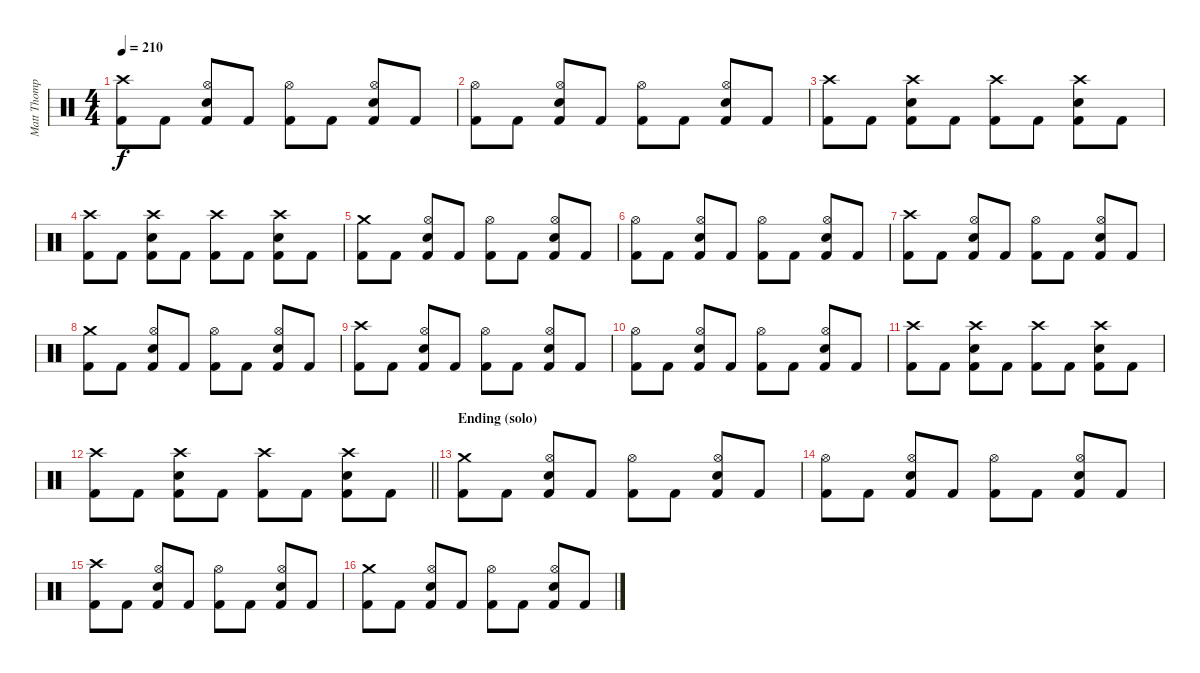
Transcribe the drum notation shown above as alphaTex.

\track ("Matt Thompson" "Matt Thomp") {instrument percussion}
\staff {score}
\articulation defaults
\ts (4 4)
\tempo 210
\clef neutral
\ks c
("Crash high (hit)" "Kick (hit) 2").8{dy f} "Kick (hit) 2".8 ("Hi-Hat (open)" "Electric Snare (hit)" "Kick (hit) 2").8 "Kick (hit) 2".8 ("Hi-Hat (open)" "Kick (hit) 2").8 "Kick (hit) 2".8 ("Hi-Hat (open)" "Electric Snare (hit)" "Kick (hit) 2").8 "Kick (hit) 2".8 |
("Hi-Hat (open)" "Kick (hit) 2").8 "Kick (hit) 2".8 ("Hi-Hat (open)" "Electric Snare (hit)" "Kick (hit) 2").8 "Kick (hit) 2".8 ("Hi-Hat (open)" "Kick (hit) 2").8 "Kick (hit) 2".8 ("Hi-Hat (open)" "Electric Snare (hit)" "Kick (hit) 2").8 "Kick (hit) 2".8 |
("Crash high (hit)" "Kick (hit) 2").8 "Kick (hit) 2".8 ("Crash high (hit)" "Electric Snare (hit)" "Kick (hit) 2").8 "Kick (hit) 2".8 ("Crash high (hit)" "Kick (hit) 2").8 "Kick (hit) 2".8 ("Crash high (hit)" "Electric Snare (hit)" "Kick (hit) 2").8 "Kick (hit) 2".8 |
("Crash high (hit)" "Kick (hit) 2").8 "Kick (hit) 2".8 ("Crash high (hit)" "Electric Snare (hit)" "Kick (hit) 2").8 "Kick (hit) 2".8 ("Crash high (hit)" "Kick (hit) 2").8 "Kick (hit) 2".8 ("Crash high (hit)" "Electric Snare (hit)" "Kick (hit) 2").8 "Kick (hit) 2".8 |
("Crash medium (hit)" "Kick (hit) 2").8 "Kick (hit) 2".8 ("Hi-Hat (open)" "Electric Snare (hit)" "Kick (hit) 2").8 "Kick (hit) 2".8 ("Hi-Hat (open)" "Kick (hit) 2").8 "Kick (hit) 2".8 ("Hi-Hat (open)" "Electric Snare (hit)" "Kick (hit) 2").8 "Kick (hit) 2".8 |
("Hi-Hat (open)" "Kick (hit) 2").8 "Kick (hit) 2".8 ("Hi-Hat (open)" "Electric Snare (hit)" "Kick (hit) 2").8 "Kick (hit) 2".8 ("Hi-Hat (open)" "Kick (hit) 2").8 "Kick (hit) 2".8 ("Hi-Hat (open)" "Electric Snare (hit)" "Kick (hit) 2").8 "Kick (hit) 2".8 |
("Crash high (hit)" "Kick (hit) 2").8 "Kick (hit) 2".8 ("Hi-Hat (open)" "Electric Snare (hit)" "Kick (hit) 2").8 "Kick (hit) 2".8 ("Hi-Hat (open)" "Kick (hit) 2").8 "Kick (hit) 2".8 ("Hi-Hat (open)" "Electric Snare (hit)" "Kick (hit) 2").8 "Kick (hit) 2".8 |
("Crash medium (hit)" "Kick (hit) 2").8 "Kick (hit) 2".8 ("Hi-Hat (open)" "Electric Snare (hit)" "Kick (hit) 2").8 "Kick (hit) 2".8 ("Hi-Hat (open)" "Kick (hit) 2").8 "Kick (hit) 2".8 ("Hi-Hat (open)" "Electric Snare (hit)" "Kick (hit) 2").8 "Kick (hit) 2".8 |
("Crash high (hit)" "Kick (hit) 2").8 "Kick (hit) 2".8 ("Hi-Hat (open)" "Electric Snare (hit)" "Kick (hit) 2").8 "Kick (hit) 2".8 ("Hi-Hat (open)" "Kick (hit) 2").8 "Kick (hit) 2".8 ("Hi-Hat (open)" "Electric Snare (hit)" "Kick (hit) 2").8 "Kick (hit) 2".8 |
("Hi-Hat (open)" "Kick (hit) 2").8 "Kick (hit) 2".8 ("Hi-Hat (open)" "Electric Snare (hit)" "Kick (hit) 2").8 "Kick (hit) 2".8 ("Hi-Hat (open)" "Kick (hit) 2").8 "Kick (hit) 2".8 ("Hi-Hat (open)" "Electric Snare (hit)" "Kick (hit) 2").8 "Kick (hit) 2".8 |
("Crash high (hit)" "Kick (hit) 2").8 "Kick (hit) 2".8 ("Crash high (hit)" "Electric Snare (hit)" "Kick (hit) 2").8 "Kick (hit) 2".8 ("Crash high (hit)" "Kick (hit) 2").8 "Kick (hit) 2".8 ("Crash high (hit)" "Electric Snare (hit)" "Kick (hit) 2").8 "Kick (hit) 2".8 |
\barLineRight lightlight
("Crash high (hit)" "Kick (hit) 2").8 "Kick (hit) 2".8 ("Crash high (hit)" "Electric Snare (hit)" "Kick (hit) 2").8 "Kick (hit) 2".8 ("Crash high (hit)" "Kick (hit) 2").8 "Kick (hit) 2".8 ("Crash high (hit)" "Electric Snare (hit)" "Kick (hit) 2").8 "Kick (hit) 2".8 |
\section ("" "Ending (solo)")
("Crash medium (hit)" "Kick (hit) 2").8 "Kick (hit) 2".8 ("Hi-Hat (open)" "Electric Snare (hit)" "Kick (hit) 2").8 "Kick (hit) 2".8 ("Hi-Hat (open)" "Kick (hit) 2").8 "Kick (hit) 2".8 ("Hi-Hat (open)" "Electric Snare (hit)" "Kick (hit) 2").8 "Kick (hit) 2".8 |
("Hi-Hat (open)" "Kick (hit) 2").8 "Kick (hit) 2".8 ("Hi-Hat (open)" "Electric Snare (hit)" "Kick (hit) 2").8 "Kick (hit) 2".8 ("Hi-Hat (open)" "Kick (hit) 2").8 "Kick (hit) 2".8 ("Hi-Hat (open)" "Electric Snare (hit)" "Kick (hit) 2").8 "Kick (hit) 2".8 |
("Crash high (hit)" "Kick (hit) 2").8 "Kick (hit) 2".8 ("Hi-Hat (open)" "Electric Snare (hit)" "Kick (hit) 2").8 "Kick (hit) 2".8 ("Hi-Hat (open)" "Kick (hit) 2").8 "Kick (hit) 2".8 ("Hi-Hat (open)" "Electric Snare (hit)" "Kick (hit) 2").8 "Kick (hit) 2".8 |
("Crash medium (hit)" "Kick (hit) 2").8 "Kick (hit) 2".8 ("Hi-Hat (open)" "Electric Snare (hit)" "Kick (hit) 2").8 "Kick (hit) 2".8 ("Hi-Hat (open)" "Kick (hit) 2").8 "Kick (hit) 2".8 ("Hi-Hat (open)" "Electric Snare (hit)" "Kick (hit) 2").8 "Kick (hit) 2".8
